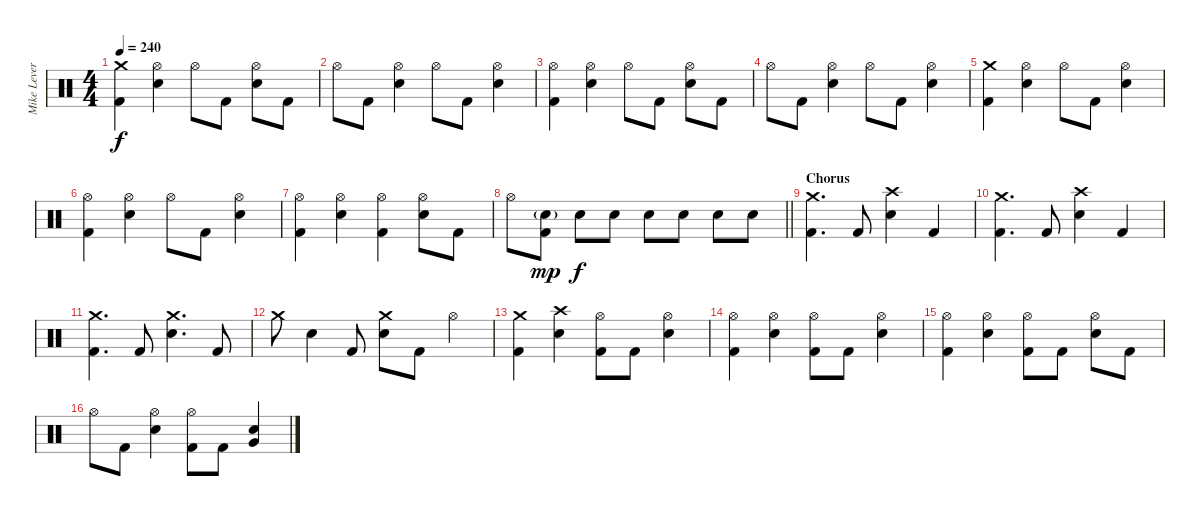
\track ("Mike Leverence - Drums" "Mike Lever") {instrument percussion}
\staff {score}
\articulation defaults
\ts (4 4)
\tempo 240
\clef neutral
\ks c
("Crash medium (hit)" "Kick (hit) 2").4{dy f} ("Hi-Hat (open)" "Electric Snare (hit)").4 "Hi-Hat (open)".8 "Kick (hit) 2".8 ("Hi-Hat (open)" "Electric Snare (hit)").8 "Kick (hit) 2".8 |
"Hi-Hat (open)".8 "Kick (hit) 2".8 ("Hi-Hat (open)" "Electric Snare (hit)").4 "Hi-Hat (open)".8 "Kick (hit) 2".8 ("Hi-Hat (open)" "Electric Snare (hit)").4 |
("Hi-Hat (open)" "Kick (hit) 2").4 ("Hi-Hat (open)" "Electric Snare (hit)").4 "Hi-Hat (open)".8 "Kick (hit) 2".8 ("Hi-Hat (open)" "Electric Snare (hit)").8 "Kick (hit) 2".8 |
"Hi-Hat (open)".8 "Kick (hit) 2".8 ("Hi-Hat (open)" "Electric Snare (hit)").4 "Hi-Hat (open)".8 "Kick (hit) 2".8 ("Hi-Hat (open)" "Electric Snare (hit)").4 |
("Crash medium (hit)" "Kick (hit) 2").4 ("Hi-Hat (open)" "Electric Snare (hit)").4 "Hi-Hat (open)".8 "Kick (hit) 2".8 ("Hi-Hat (open)" "Electric Snare (hit)").4 |
("Hi-Hat (open)" "Kick (hit) 2").4 ("Hi-Hat (open)" "Electric Snare (hit)").4 "Hi-Hat (open)".8 "Kick (hit) 2".8 ("Hi-Hat (open)" "Electric Snare (hit)").4 |
("Hi-Hat (open)" "Kick (hit) 2").4 ("Hi-Hat (open)" "Electric Snare (hit)").4 ("Hi-Hat (open)" "Kick (hit) 2").4 ("Hi-Hat (open)" "Electric Snare (hit)").8 "Kick (hit) 2".8 |
\barLineRight lightlight "Hi-Hat (open)".8
("Electric Snare (hit)"{g} "Kick (hit) 2").8{dy mp} "Electric Snare (hit)".8{dy f} "Electric Snare (hit)".8 "Electric Snare (hit)".8 "Electric Snare (hit)".8 "Electric Snare (hit)".8 "Electric Snare (hit)".8 |
\section ("" "Chorus")
("Crash medium (hit)" "Kick (hit) 2").4{d} "Kick (hit) 2".8 ("Crash high (hit)" "Electric Snare (hit)").4 "Kick (hit) 2".4 |
("Crash medium (hit)" "Kick (hit) 2").4{d} "Kick (hit) 2".8 ("Crash high (hit)" "Electric Snare (hit)").4 "Kick (hit) 2".4 |
("Crash medium (hit)" "Kick (hit) 2").4{d} "Kick (hit) 2".8 ("Crash medium (hit)" "Electric Snare (hit)").4{d} "Kick (hit) 2".8 |
"Crash medium (hit)".8 "Electric Snare (hit)".4 "Kick (hit) 2".8 ("Crash medium (hit)" "Electric Snare (hit)").8 "Kick (hit) 2".8 "Hi-Hat (open)".4 |
("Crash medium (hit)" "Kick (hit) 2").4 ("Crash high (hit)" "Electric Snare (hit)").4 ("Hi-Hat (open)" "Kick (hit) 2").8 "Kick (hit) 2".8 ("Hi-Hat (open)" "Electric Snare (hit)").4 |
("Hi-Hat (open)" "Kick (hit) 2").4 ("Hi-Hat (open)" "Electric Snare (hit)").4 ("Hi-Hat (open)" "Kick (hit) 2").8 "Kick (hit) 2".8 ("Hi-Hat (open)" "Electric Snare (hit)").4 |
("Hi-Hat (open)" "Kick (hit) 2").4 ("Hi-Hat (open)" "Electric Snare (hit)").4 ("Hi-Hat (open)" "Kick (hit) 2").8 "Kick (hit) 2".8 ("Hi-Hat (open)" "Electric Snare (hit)").8 "Kick (hit) 2".8 |
"Hi-Hat (open)".8 "Kick (hit) 2".8 ("Hi-Hat (open)" "Electric Snare (hit)").4 ("Hi-Hat (open)" "Kick (hit) 2").8 "Kick (hit) 2".8 ("Very Low Tom (hit)" "Electric Snare (hit)").4
